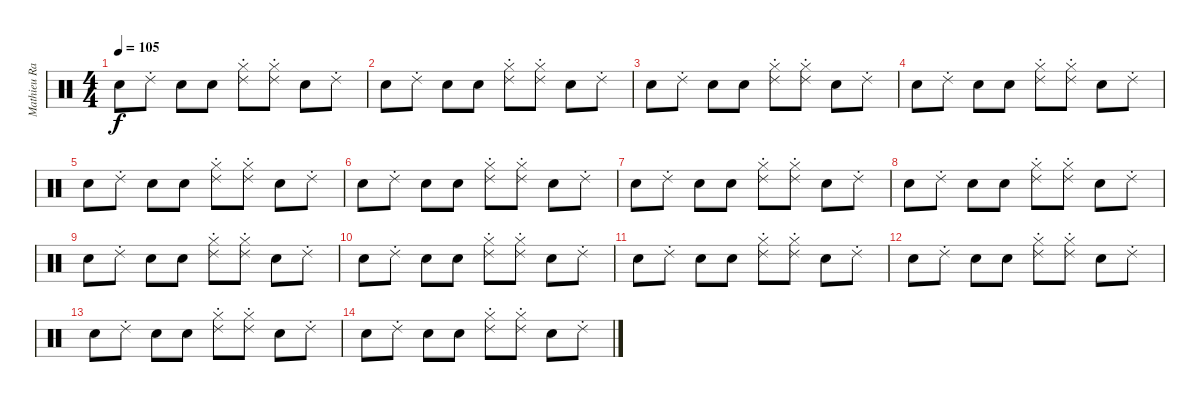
\track ("Mathieu Rabaté (batterie)" "Mathieu Ra") {instrument percussion}
\staff {score}
\articulation defaults
\ts (4 4)
\tempo 105
\clef neutral
\ks c "Snare (hit) 2".8{dy f} "Ride (choke) 2".8 "Electric Snare (hit)".8 "Electric Snare (hit)".8
("Hi-Hat (closed)" "Ride (choke) 2").8 ("Hi-Hat (closed)" "Ride (choke) 2").8 "Electric Snare (hit)".8 "Ride (choke) 2".8 |
"Snare (hit) 2".8 "Ride (choke) 2".8 "Electric Snare (hit)".8 "Electric Snare (hit)".8 ("Hi-Hat (closed)" "Ride (choke) 2").8 ("Hi-Hat (closed)" "Ride (choke) 2").8 "Electric Snare (hit)".8 "Ride (choke) 2".8 |
"Snare (hit) 2".8 "Ride (choke) 2".8 "Electric Snare (hit)".8 "Electric Snare (hit)".8 ("Hi-Hat (closed)" "Ride (choke) 2").8 ("Hi-Hat (closed)" "Ride (choke) 2").8 "Electric Snare (hit)".8 "Ride (choke) 2".8 |
"Snare (hit) 2".8 "Ride (choke) 2".8 "Electric Snare (hit)".8 "Electric Snare (hit)".8 ("Hi-Hat (closed)" "Ride (choke) 2").8 ("Hi-Hat (closed)" "Ride (choke) 2").8 "Electric Snare (hit)".8 "Ride (choke) 2".8 |
"Snare (hit) 2".8 "Ride (choke) 2".8 "Electric Snare (hit)".8 "Electric Snare (hit)".8 ("Hi-Hat (closed)" "Ride (choke) 2").8 ("Hi-Hat (closed)" "Ride (choke) 2").8 "Electric Snare (hit)".8 "Ride (choke) 2".8 |
"Snare (hit) 2".8 "Ride (choke) 2".8 "Electric Snare (hit)".8 "Electric Snare (hit)".8 ("Hi-Hat (closed)" "Ride (choke) 2").8 ("Hi-Hat (closed)" "Ride (choke) 2").8 "Electric Snare (hit)".8 "Ride (choke) 2".8 |
"Snare (hit) 2".8 "Ride (choke) 2".8 "Electric Snare (hit)".8 "Electric Snare (hit)".8 ("Hi-Hat (closed)" "Ride (choke) 2").8 ("Hi-Hat (closed)" "Ride (choke) 2").8 "Electric Snare (hit)".8 "Ride (choke) 2".8 |
"Snare (hit) 2".8 "Ride (choke) 2".8 "Electric Snare (hit)".8 "Electric Snare (hit)".8 ("Hi-Hat (closed)" "Ride (choke) 2").8 ("Hi-Hat (closed)" "Ride (choke) 2").8 "Electric Snare (hit)".8 "Ride (choke) 2".8 |
"Snare (hit) 2".8 "Ride (choke) 2".8 "Electric Snare (hit)".8 "Electric Snare (hit)".8 ("Hi-Hat (closed)" "Ride (choke) 2").8 ("Hi-Hat (closed)" "Ride (choke) 2").8 "Electric Snare (hit)".8 "Ride (choke) 2".8 |
"Snare (hit) 2".8 "Ride (choke) 2".8 "Electric Snare (hit)".8 "Electric Snare (hit)".8 ("Hi-Hat (closed)" "Ride (choke) 2").8 ("Hi-Hat (closed)" "Ride (choke) 2").8 "Electric Snare (hit)".8 "Ride (choke) 2".8 |
"Snare (hit) 2".8 "Ride (choke) 2".8 "Electric Snare (hit)".8 "Electric Snare (hit)".8 ("Hi-Hat (closed)" "Ride (choke) 2").8 ("Hi-Hat (closed)" "Ride (choke) 2").8 "Electric Snare (hit)".8 "Ride (choke) 2".8 |
"Snare (hit) 2".8 "Ride (choke) 2".8 "Electric Snare (hit)".8 "Electric Snare (hit)".8 ("Hi-Hat (closed)" "Ride (choke) 2").8 ("Hi-Hat (closed)" "Ride (choke) 2").8 "Electric Snare (hit)".8 "Ride (choke) 2".8 |
"Snare (hit) 2".8 "Ride (choke) 2".8 "Electric Snare (hit)".8 "Electric Snare (hit)".8 ("Hi-Hat (closed)" "Ride (choke) 2").8 ("Hi-Hat (closed)" "Ride (choke) 2").8 "Electric Snare (hit)".8 "Ride (choke) 2".8 |
"Snare (hit) 2".8 "Ride (choke) 2".8 "Electric Snare (hit)".8 "Electric Snare (hit)".8 ("Hi-Hat (closed)" "Ride (choke) 2").8 ("Hi-Hat (closed)" "Ride (choke) 2").8 "Electric Snare (hit)".8 "Ride (choke) 2".8
